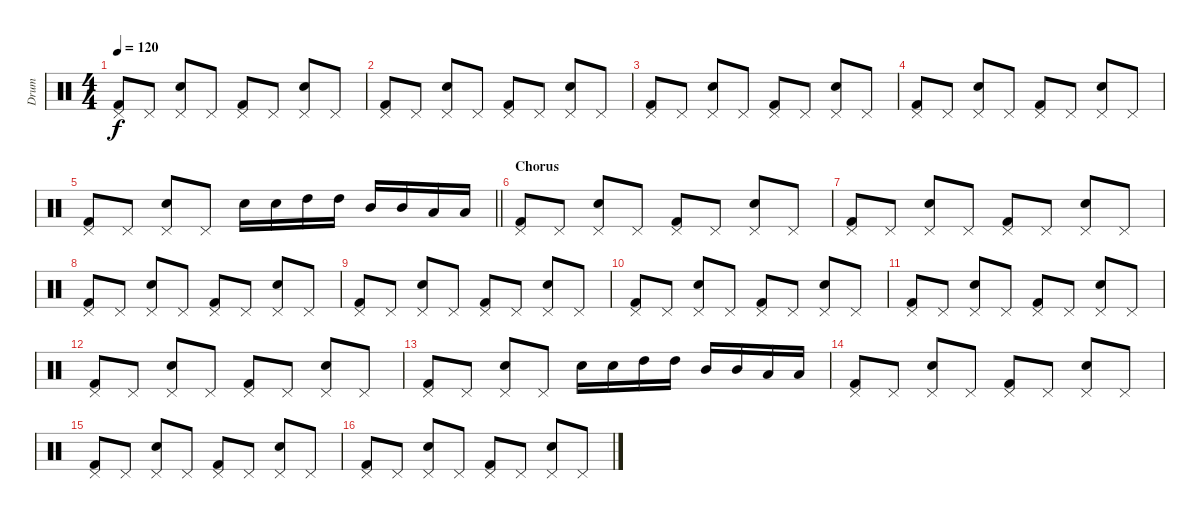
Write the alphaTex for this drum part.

\track ("Drum" "Drum") {instrument percussion}
\staff {score}
\articulation defaults
\ts (4 4)
\tempo 120
\clef neutral
\ks c
("Pedal Hi-Hat (hit)" "Kick (hit) 2").8{dy f} "Pedal Hi-Hat (hit)".8 ("Pedal Hi-Hat (hit)" "Electric Snare (hit)").8 "Pedal Hi-Hat (hit)".8 ("Pedal Hi-Hat (hit)" "Kick (hit) 2").8 "Pedal Hi-Hat (hit)".8 ("Pedal Hi-Hat (hit)" "Electric Snare (hit)").8 "Pedal Hi-Hat (hit)".8 |
("Pedal Hi-Hat (hit)" "Kick (hit) 2").8 "Pedal Hi-Hat (hit)".8 ("Pedal Hi-Hat (hit)" "Electric Snare (hit)").8 "Pedal Hi-Hat (hit)".8 ("Pedal Hi-Hat (hit)" "Kick (hit) 2").8 "Pedal Hi-Hat (hit)".8 ("Pedal Hi-Hat (hit)" "Electric Snare (hit)").8 "Pedal Hi-Hat (hit)".8 |
("Pedal Hi-Hat (hit)" "Kick (hit) 2").8 "Pedal Hi-Hat (hit)".8 ("Pedal Hi-Hat (hit)" "Electric Snare (hit)").8 "Pedal Hi-Hat (hit)".8 ("Pedal Hi-Hat (hit)" "Kick (hit) 2").8 "Pedal Hi-Hat (hit)".8 ("Pedal Hi-Hat (hit)" "Electric Snare (hit)").8 "Pedal Hi-Hat (hit)".8 |
("Pedal Hi-Hat (hit)" "Kick (hit) 2").8 "Pedal Hi-Hat (hit)".8 ("Pedal Hi-Hat (hit)" "Electric Snare (hit)").8 "Pedal Hi-Hat (hit)".8 ("Pedal Hi-Hat (hit)" "Kick (hit) 2").8 "Pedal Hi-Hat (hit)".8 ("Pedal Hi-Hat (hit)" "Electric Snare (hit)").8 "Pedal Hi-Hat (hit)".8 |
\barLineRight lightlight
("Pedal Hi-Hat (hit)" "Kick (hit) 2").8 "Pedal Hi-Hat (hit)".8 ("Pedal Hi-Hat (hit)" "Electric Snare (hit)").8 "Pedal Hi-Hat (hit)".8 "Electric Snare (hit)".16 "Electric Snare (hit)".16 "High Tom (hit)".16 "High Tom (hit)".16 "Mid Tom (hit)".16 "Mid Tom (hit)".16 "Low Tom (hit)".16 "Low Tom (hit)".16 |
\section ("" "Chorus")
("Pedal Hi-Hat (hit)" "Kick (hit) 2").8 "Pedal Hi-Hat (hit)".8 ("Pedal Hi-Hat (hit)" "Electric Snare (hit)").8 "Pedal Hi-Hat (hit)".8 ("Pedal Hi-Hat (hit)" "Kick (hit) 2").8 "Pedal Hi-Hat (hit)".8 ("Pedal Hi-Hat (hit)" "Electric Snare (hit)").8 "Pedal Hi-Hat (hit)".8 |
("Pedal Hi-Hat (hit)" "Kick (hit) 2").8 "Pedal Hi-Hat (hit)".8 ("Pedal Hi-Hat (hit)" "Electric Snare (hit)").8 "Pedal Hi-Hat (hit)".8 ("Pedal Hi-Hat (hit)" "Kick (hit) 2").8 "Pedal Hi-Hat (hit)".8 ("Pedal Hi-Hat (hit)" "Electric Snare (hit)").8 "Pedal Hi-Hat (hit)".8 |
("Pedal Hi-Hat (hit)" "Kick (hit) 2").8 "Pedal Hi-Hat (hit)".8 ("Pedal Hi-Hat (hit)" "Electric Snare (hit)").8 "Pedal Hi-Hat (hit)".8 ("Pedal Hi-Hat (hit)" "Kick (hit) 2").8 "Pedal Hi-Hat (hit)".8 ("Pedal Hi-Hat (hit)" "Electric Snare (hit)").8 "Pedal Hi-Hat (hit)".8 |
("Pedal Hi-Hat (hit)" "Kick (hit) 2").8 "Pedal Hi-Hat (hit)".8 ("Pedal Hi-Hat (hit)" "Electric Snare (hit)").8 "Pedal Hi-Hat (hit)".8 ("Pedal Hi-Hat (hit)" "Kick (hit) 2").8 "Pedal Hi-Hat (hit)".8 ("Pedal Hi-Hat (hit)" "Electric Snare (hit)").8 "Pedal Hi-Hat (hit)".8 |
("Pedal Hi-Hat (hit)" "Kick (hit) 2").8 "Pedal Hi-Hat (hit)".8 ("Pedal Hi-Hat (hit)" "Electric Snare (hit)").8 "Pedal Hi-Hat (hit)".8 ("Pedal Hi-Hat (hit)" "Kick (hit) 2").8 "Pedal Hi-Hat (hit)".8 ("Pedal Hi-Hat (hit)" "Electric Snare (hit)").8 "Pedal Hi-Hat (hit)".8 |
("Pedal Hi-Hat (hit)" "Kick (hit) 2").8 "Pedal Hi-Hat (hit)".8 ("Pedal Hi-Hat (hit)" "Electric Snare (hit)").8 "Pedal Hi-Hat (hit)".8 ("Pedal Hi-Hat (hit)" "Kick (hit) 2").8 "Pedal Hi-Hat (hit)".8 ("Pedal Hi-Hat (hit)" "Electric Snare (hit)").8 "Pedal Hi-Hat (hit)".8 |
("Pedal Hi-Hat (hit)" "Kick (hit) 2").8 "Pedal Hi-Hat (hit)".8 ("Pedal Hi-Hat (hit)" "Electric Snare (hit)").8 "Pedal Hi-Hat (hit)".8 ("Pedal Hi-Hat (hit)" "Kick (hit) 2").8 "Pedal Hi-Hat (hit)".8 ("Pedal Hi-Hat (hit)" "Electric Snare (hit)").8 "Pedal Hi-Hat (hit)".8 |
("Pedal Hi-Hat (hit)" "Kick (hit) 2").8 "Pedal Hi-Hat (hit)".8 ("Pedal Hi-Hat (hit)" "Electric Snare (hit)").8 "Pedal Hi-Hat (hit)".8 "Electric Snare (hit)".16 "Electric Snare (hit)".16 "High Tom (hit)".16 "High Tom (hit)".16 "Mid Tom (hit)".16 "Mid Tom (hit)".16 "Low Tom (hit)".16 "Low Tom (hit)".16 |
("Pedal Hi-Hat (hit)" "Kick (hit) 2").8 "Pedal Hi-Hat (hit)".8 ("Pedal Hi-Hat (hit)" "Electric Snare (hit)").8 "Pedal Hi-Hat (hit)".8 ("Pedal Hi-Hat (hit)" "Kick (hit) 2").8 "Pedal Hi-Hat (hit)".8 ("Pedal Hi-Hat (hit)" "Electric Snare (hit)").8 "Pedal Hi-Hat (hit)".8 |
("Pedal Hi-Hat (hit)" "Kick (hit) 2").8 "Pedal Hi-Hat (hit)".8 ("Pedal Hi-Hat (hit)" "Electric Snare (hit)").8 "Pedal Hi-Hat (hit)".8 ("Pedal Hi-Hat (hit)" "Kick (hit) 2").8 "Pedal Hi-Hat (hit)".8 ("Pedal Hi-Hat (hit)" "Electric Snare (hit)").8 "Pedal Hi-Hat (hit)".8 |
("Pedal Hi-Hat (hit)" "Kick (hit) 2").8 "Pedal Hi-Hat (hit)".8 ("Pedal Hi-Hat (hit)" "Electric Snare (hit)").8 "Pedal Hi-Hat (hit)".8 ("Pedal Hi-Hat (hit)" "Kick (hit) 2").8 "Pedal Hi-Hat (hit)".8 ("Pedal Hi-Hat (hit)" "Electric Snare (hit)").8 "Pedal Hi-Hat (hit)".8
